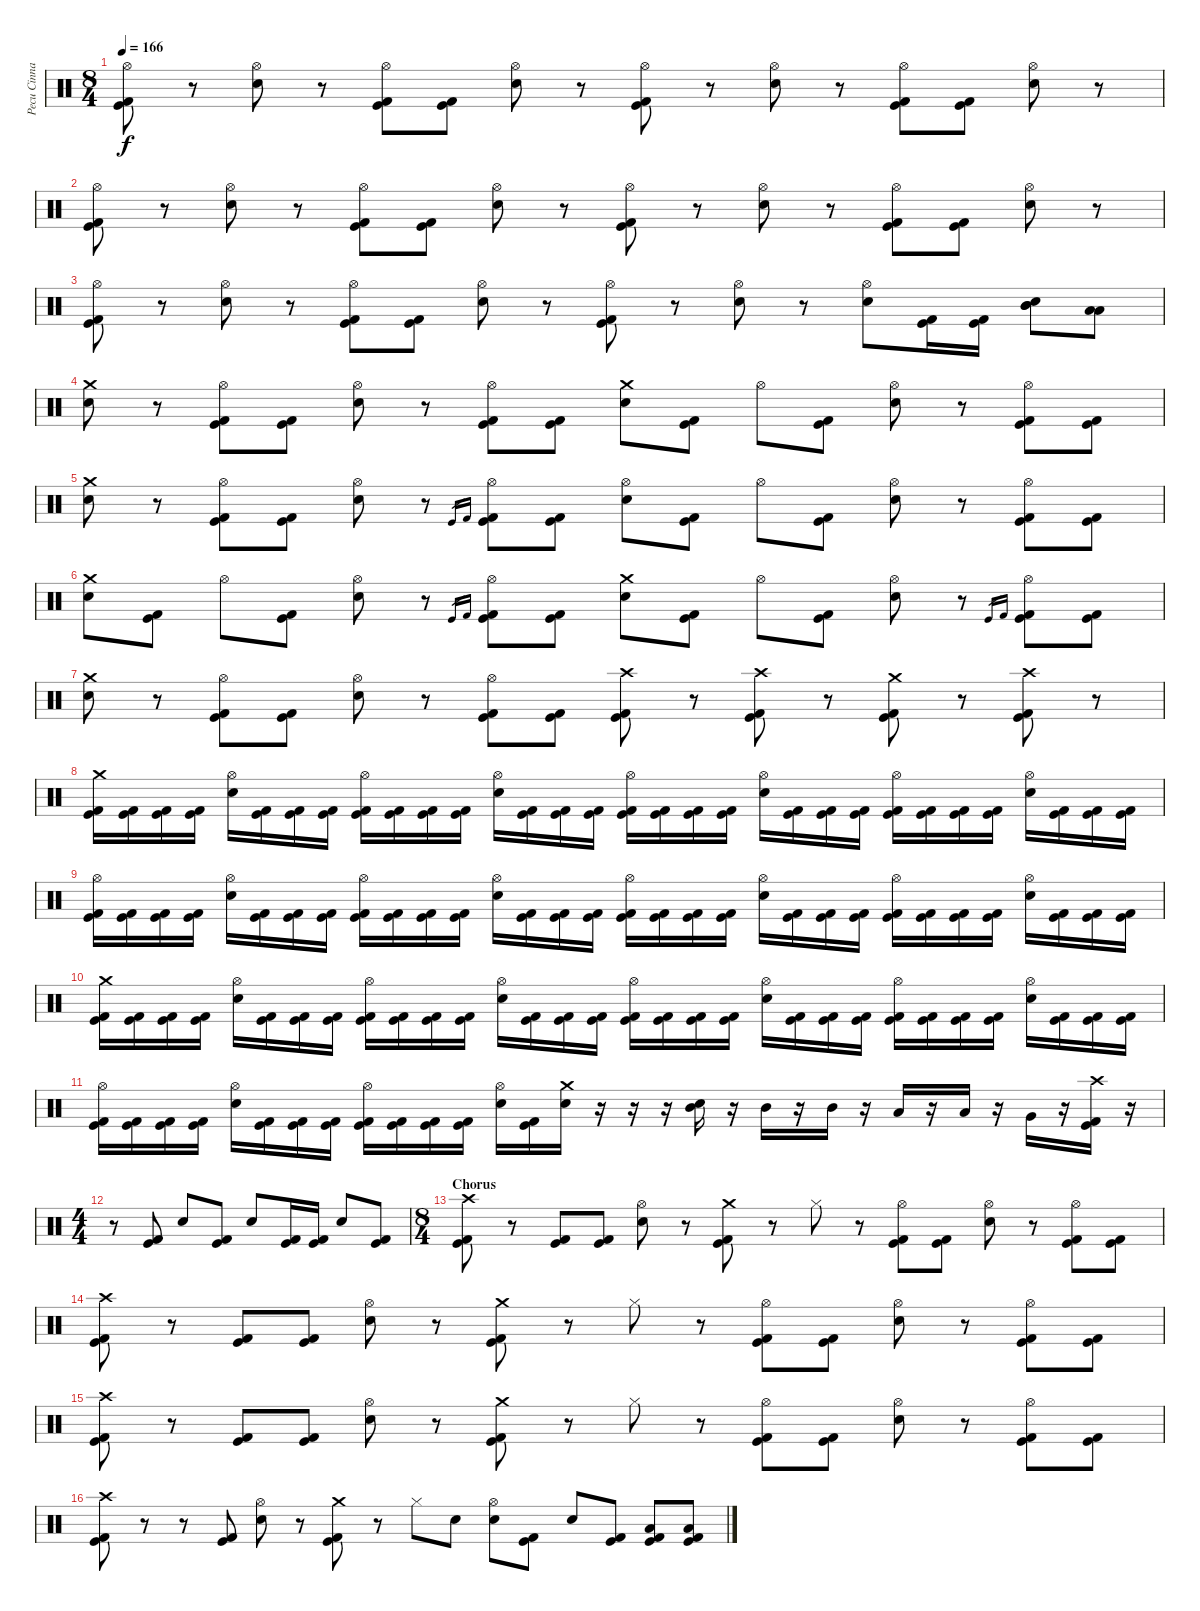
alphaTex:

\track ("Pecu Cinnari" "Pecu Cinna") {instrument percussion}
\staff {score}
\articulation defaults
\ts (8 4)
\tempo 166
\clef neutral
\ks c
("Hi-Hat (open)" "Kick (hit)" "Kick (hit) 2").8{dy f} r.8 ("Hi-Hat (open)" "Electric Snare (hit)").8 r.8 ("Hi-Hat (open)" "Kick (hit)" "Kick (hit) 2").8 ("Kick (hit)" "Kick (hit) 2").8 ("Hi-Hat (open)" "Electric Snare (hit)").8 r.8 ("Hi-Hat (open)" "Kick (hit)" "Kick (hit) 2").8 r.8 ("Hi-Hat (open)" "Electric Snare (hit)").8 r.8 ("Hi-Hat (open)" "Kick (hit)" "Kick (hit) 2").8 ("Kick (hit)" "Kick (hit) 2").8 ("Hi-Hat (open)" "Electric Snare (hit)").8 r.8 |
("Hi-Hat (open)" "Kick (hit)" "Kick (hit) 2").8 r.8 ("Hi-Hat (open)" "Electric Snare (hit)").8 r.8 ("Hi-Hat (open)" "Kick (hit)" "Kick (hit) 2").8 ("Kick (hit)" "Kick (hit) 2").8 ("Hi-Hat (open)" "Electric Snare (hit)").8 r.8 ("Hi-Hat (open)" "Kick (hit)" "Kick (hit) 2").8 r.8 ("Hi-Hat (open)" "Electric Snare (hit)").8 r.8 ("Hi-Hat (open)" "Kick (hit)" "Kick (hit) 2").8 ("Kick (hit)" "Kick (hit) 2").8 ("Hi-Hat (open)" "Electric Snare (hit)").8 r.8 |
("Hi-Hat (open)" "Kick (hit)" "Kick (hit) 2").8 r.8 ("Hi-Hat (open)" "Electric Snare (hit)").8 r.8 ("Hi-Hat (open)" "Kick (hit)" "Kick (hit) 2").8 ("Kick (hit)" "Kick (hit) 2").8 ("Hi-Hat (open)" "Electric Snare (hit)").8 r.8 ("Hi-Hat (open)" "Kick (hit)" "Kick (hit) 2").8 r.8 ("Hi-Hat (open)" "Electric Snare (hit)").8 r.8 ("Hi-Hat (open)" "Electric Snare (hit)").8 ("Kick (hit)" "Kick (hit) 2").16 ("Kick (hit)" "Kick (hit) 2").16 ("Mid Tom (hit)" "Mid Tom (hit)" "Electric Snare (hit)").8 ("Low Tom (hit)" "Low Tom (hit)").8 |
("Crash medium (hit)" "Electric Snare (hit)").8 r.8 ("Hi-Hat (open)" "Kick (hit)" "Kick (hit) 2").8 ("Kick (hit)" "Kick (hit) 2").8 ("Hi-Hat (open)" "Electric Snare (hit)").8 r.8 ("Hi-Hat (open)" "Kick (hit)" "Kick (hit) 2").8 ("Kick (hit)" "Kick (hit) 2").8 ("Crash medium (hit)" "Electric Snare (hit)").8 ("Kick (hit)" "Kick (hit) 2").8 "Hi-Hat (open)".8 ("Kick (hit)" "Kick (hit) 2").8 ("Hi-Hat (open)" "Electric Snare (hit)").8 r.8 ("Hi-Hat (open)" "Kick (hit)" "Kick (hit) 2").8 ("Kick (hit)" "Kick (hit) 2").8 |
("Crash medium (hit)" "Electric Snare (hit)").8 r.8 ("Hi-Hat (open)" "Kick (hit)" "Kick (hit) 2").8 ("Kick (hit)" "Kick (hit) 2").8 ("Hi-Hat (open)" "Electric Snare (hit)").8 r.8 "Kick (hit)".16{gr} "Kick (hit) 2".16{gr} ("Hi-Hat (open)" "Kick (hit)" "Kick (hit) 2").8 ("Kick (hit)" "Kick (hit) 2").8 ("Hi-Hat (open)" "Electric Snare (hit)").8 ("Kick (hit)" "Kick (hit) 2").8 "Hi-Hat (open)".8 ("Kick (hit)" "Kick (hit) 2").8 ("Hi-Hat (open)" "Electric Snare (hit)").8 r.8 ("Hi-Hat (open)" "Kick (hit)" "Kick (hit) 2").8 ("Kick (hit)" "Kick (hit) 2").8 |
("Crash medium (hit)" "Electric Snare (hit)").8 ("Kick (hit)" "Kick (hit) 2").8 "Hi-Hat (open)".8 ("Kick (hit)" "Kick (hit) 2").8 ("Hi-Hat (open)" "Electric Snare (hit)").8 r.8 "Kick (hit)".16{gr} "Kick (hit) 2".16{gr} ("Hi-Hat (open)" "Kick (hit)" "Kick (hit) 2").8 ("Kick (hit)" "Kick (hit) 2").8 ("Crash medium (hit)" "Electric Snare (hit)").8 ("Kick (hit)" "Kick (hit) 2").8 "Hi-Hat (open)".8 ("Kick (hit)" "Kick (hit) 2").8 ("Hi-Hat (open)" "Electric Snare (hit)").8 r.8 "Kick (hit)".16{gr} "Kick (hit) 2".16{gr} ("Hi-Hat (open)" "Kick (hit)" "Kick (hit) 2").8 ("Kick (hit)" "Kick (hit) 2").8 |
("Crash medium (hit)" "Electric Snare (hit)").8 r.8 ("Hi-Hat (open)" "Kick (hit)" "Kick (hit) 2").8 ("Kick (hit)" "Kick (hit) 2").8 ("Hi-Hat (open)" "Electric Snare (hit)").8 r.8 ("Hi-Hat (open)" "Kick (hit)" "Kick (hit) 2").8 ("Kick (hit)" "Kick (hit) 2").8 ("Crash high (hit)" "Kick (hit)" "Kick (hit) 2").8 r.8 ("Crash high (hit)" "Kick (hit)" "Kick (hit) 2").8 r.8 ("Crash medium (hit)" "Kick (hit)" "Kick (hit) 2").8 r.8 ("Crash high (hit)" "Kick (hit)" "Kick (hit) 2").8 r.8 |
("Crash medium (hit)" "Kick (hit)" "Kick (hit) 2").16 ("Kick (hit)" "Kick (hit) 2").16 ("Kick (hit)" "Kick (hit) 2").16 ("Kick (hit)" "Kick (hit) 2").16 ("Hi-Hat (open)" "Electric Snare (hit)").16 ("Kick (hit)" "Kick (hit) 2").16 ("Kick (hit)" "Kick (hit) 2").16 ("Kick (hit)" "Kick (hit) 2").16 ("Hi-Hat (open)" "Kick (hit)" "Kick (hit) 2").16 ("Kick (hit)" "Kick (hit) 2").16 ("Kick (hit)" "Kick (hit) 2").16 ("Kick (hit)" "Kick (hit) 2").16 ("Hi-Hat (open)" "Electric Snare (hit)").16 ("Kick (hit)" "Kick (hit) 2").16 ("Kick (hit)" "Kick (hit) 2").16 ("Kick (hit)" "Kick (hit) 2").16 ("Hi-Hat (open)" "Kick (hit)" "Kick (hit) 2").16 ("Kick (hit)" "Kick (hit) 2").16 ("Kick (hit)" "Kick (hit) 2").16 ("Kick (hit)" "Kick (hit) 2").16 ("Hi-Hat (open)" "Electric Snare (hit)").16 ("Kick (hit)" "Kick (hit) 2").16 ("Kick (hit)" "Kick (hit) 2").16 ("Kick (hit)" "Kick (hit) 2").16 ("Hi-Hat (open)" "Kick (hit)" "Kick (hit) 2").16 ("Kick (hit)" "Kick (hit) 2").16 ("Kick (hit)" "Kick (hit) 2").16 ("Kick (hit)" "Kick (hit) 2").16 ("Hi-Hat (open)" "Electric Snare (hit)").16 ("Kick (hit)" "Kick (hit) 2").16 ("Kick (hit)" "Kick (hit) 2").16 ("Kick (hit)" "Kick (hit) 2").16 |
("Hi-Hat (open)" "Kick (hit)" "Kick (hit) 2").16 ("Kick (hit)" "Kick (hit) 2").16 ("Kick (hit)" "Kick (hit) 2").16 ("Kick (hit)" "Kick (hit) 2").16 ("Hi-Hat (open)" "Electric Snare (hit)").16 ("Kick (hit)" "Kick (hit) 2").16 ("Kick (hit)" "Kick (hit) 2").16 ("Kick (hit)" "Kick (hit) 2").16 ("Hi-Hat (open)" "Kick (hit)" "Kick (hit) 2").16 ("Kick (hit)" "Kick (hit) 2").16 ("Kick (hit)" "Kick (hit) 2").16 ("Kick (hit)" "Kick (hit) 2").16 ("Hi-Hat (open)" "Electric Snare (hit)").16 ("Kick (hit)" "Kick (hit) 2").16 ("Kick (hit)" "Kick (hit) 2").16 ("Kick (hit)" "Kick (hit) 2").16 ("Hi-Hat (open)" "Kick (hit)" "Kick (hit) 2").16 ("Kick (hit)" "Kick (hit) 2").16 ("Kick (hit)" "Kick (hit) 2").16 ("Kick (hit)" "Kick (hit) 2").16 ("Hi-Hat (open)" "Electric Snare (hit)").16 ("Kick (hit)" "Kick (hit) 2").16 ("Kick (hit)" "Kick (hit) 2").16 ("Kick (hit)" "Kick (hit) 2").16 ("Hi-Hat (open)" "Kick (hit)" "Kick (hit) 2").16 ("Kick (hit)" "Kick (hit) 2").16 ("Kick (hit)" "Kick (hit) 2").16 ("Kick (hit)" "Kick (hit) 2").16 ("Hi-Hat (open)" "Electric Snare (hit)").16 ("Kick (hit)" "Kick (hit) 2").16 ("Kick (hit)" "Kick (hit) 2").16 ("Kick (hit)" "Kick (hit) 2").16 |
("Crash medium (hit)" "Kick (hit)" "Kick (hit) 2").16 ("Kick (hit)" "Kick (hit) 2").16 ("Kick (hit)" "Kick (hit) 2").16 ("Kick (hit)" "Kick (hit) 2").16 ("Hi-Hat (open)" "Electric Snare (hit)").16 ("Kick (hit)" "Kick (hit) 2").16 ("Kick (hit)" "Kick (hit) 2").16 ("Kick (hit)" "Kick (hit) 2").16 ("Hi-Hat (open)" "Kick (hit)" "Kick (hit) 2").16 ("Kick (hit)" "Kick (hit) 2").16 ("Kick (hit)" "Kick (hit) 2").16 ("Kick (hit)" "Kick (hit) 2").16 ("Hi-Hat (open)" "Electric Snare (hit)").16 ("Kick (hit)" "Kick (hit) 2").16 ("Kick (hit)" "Kick (hit) 2").16 ("Kick (hit)" "Kick (hit) 2").16 ("Hi-Hat (open)" "Kick (hit)" "Kick (hit) 2").16 ("Kick (hit)" "Kick (hit) 2").16 ("Kick (hit)" "Kick (hit) 2").16 ("Kick (hit)" "Kick (hit) 2").16 ("Hi-Hat (open)" "Electric Snare (hit)").16 ("Kick (hit)" "Kick (hit) 2").16 ("Kick (hit)" "Kick (hit) 2").16 ("Kick (hit)" "Kick (hit) 2").16 ("Hi-Hat (open)" "Kick (hit)" "Kick (hit) 2").16 ("Kick (hit)" "Kick (hit) 2").16 ("Kick (hit)" "Kick (hit) 2").16 ("Kick (hit)" "Kick (hit) 2").16 ("Hi-Hat (open)" "Electric Snare (hit)").16 ("Kick (hit)" "Kick (hit) 2").16 ("Kick (hit)" "Kick (hit) 2").16 ("Kick (hit)" "Kick (hit) 2").16 |
("Hi-Hat (open)" "Kick (hit)" "Kick (hit) 2").16 ("Kick (hit)" "Kick (hit) 2").16 ("Kick (hit)" "Kick (hit) 2").16 ("Kick (hit)" "Kick (hit) 2").16 ("Hi-Hat (open)" "Electric Snare (hit)").16 ("Kick (hit)" "Kick (hit) 2").16 ("Kick (hit)" "Kick (hit) 2").16 ("Kick (hit)" "Kick (hit) 2").16 ("Hi-Hat (open)" "Kick (hit)" "Kick (hit) 2").16 ("Kick (hit)" "Kick (hit) 2").16 ("Kick (hit)" "Kick (hit) 2").16 ("Kick (hit)" "Kick (hit) 2").16 ("Hi-Hat (open)" "Electric Snare (hit)").16 ("Kick (hit)" "Kick (hit) 2").16 ("Crash medium (hit)" "Electric Snare (hit)").16 r.16 r.16 r.16 ("Mid Tom (hit)" "Electric Snare (hit)").16 r.16 "Mid Tom (hit)".16 r.16 "Mid Tom (hit)".16 r.16 "Low Tom (hit)".16 r.16 "Low Tom (hit)".16 r.16 "Very Low Tom (hit)".16 r.16 ("Crash high (hit)" "Kick (hit)" "Kick (hit) 2").16 r.16 |
\ts (4 4)
r.8 ("Kick (hit)" "Kick (hit) 2").8 "Electric Snare (hit)".8 ("Kick (hit)" "Kick (hit) 2").8 "Electric Snare (hit)".8 ("Kick (hit)" "Kick (hit) 2").16 ("Kick (hit)" "Kick (hit) 2").16 "Electric Snare (hit)".8 ("Kick (hit)" "Kick (hit) 2").8 |
\ts (8 4)
\section ("" "Chorus")
("Crash high (hit)" "Kick (hit)" "Kick (hit) 2").8 r.8 ("Kick (hit)" "Kick (hit) 2").8 ("Kick (hit)" "Kick (hit) 2").8 ("Hi-Hat (open)" "Electric Snare (hit)").8 r.8 ("Crash medium (hit)" "Kick (hit)" "Kick (hit) 2").8 r.8 "Hi-Hat (closed)".8 r.8 ("Hi-Hat (open)" "Kick (hit)" "Kick (hit) 2").8 ("Kick (hit)" "Kick (hit) 2").8 ("Hi-Hat (open)" "Electric Snare (hit)").8 r.8 ("Hi-Hat (open)" "Kick (hit)" "Kick (hit) 2").8 ("Kick (hit)" "Kick (hit) 2").8 |
("Crash high (hit)" "Kick (hit)" "Kick (hit) 2").8 r.8 ("Kick (hit)" "Kick (hit) 2").8 ("Kick (hit)" "Kick (hit) 2").8 ("Hi-Hat (open)" "Electric Snare (hit)").8 r.8 ("Crash medium (hit)" "Kick (hit)" "Kick (hit) 2").8 r.8 "Hi-Hat (closed)".8 r.8 ("Hi-Hat (open)" "Kick (hit)" "Kick (hit) 2").8 ("Kick (hit)" "Kick (hit) 2").8 ("Hi-Hat (open)" "Electric Snare (hit)").8 r.8 ("Hi-Hat (open)" "Kick (hit)" "Kick (hit) 2").8 ("Kick (hit)" "Kick (hit) 2").8 |
("Crash high (hit)" "Kick (hit)" "Kick (hit) 2").8 r.8 ("Kick (hit)" "Kick (hit) 2").8 ("Kick (hit)" "Kick (hit) 2").8 ("Hi-Hat (open)" "Electric Snare (hit)").8 r.8 ("Crash medium (hit)" "Kick (hit)" "Kick (hit) 2").8 r.8 "Hi-Hat (closed)".8 r.8 ("Hi-Hat (open)" "Kick (hit)" "Kick (hit) 2").8 ("Kick (hit)" "Kick (hit) 2").8 ("Hi-Hat (open)" "Electric Snare (hit)").8 r.8 ("Hi-Hat (open)" "Kick (hit)" "Kick (hit) 2").8 ("Kick (hit)" "Kick (hit) 2").8 |
("Crash high (hit)" "Kick (hit)" "Kick (hit) 2").8 r.8 r.8 ("Kick (hit)" "Kick (hit) 2").8 ("Hi-Hat (open)" "Electric Snare (hit)").8 r.8 ("Crash medium (hit)" "Kick (hit)" "Kick (hit) 2").8 r.8 "Hi-Hat (closed)".8 "Electric Snare (hit)".8 ("Hi-Hat (open)" "Electric Snare (hit)").8 ("Kick (hit)" "Kick (hit) 2").8 "Electric Snare (hit)".8 ("Kick (hit)" "Kick (hit) 2").8 ("Low Tom (hit)" "Kick (hit)" "Kick (hit) 2").8 ("Low Tom (hit)" "Kick (hit)" "Kick (hit) 2").8
